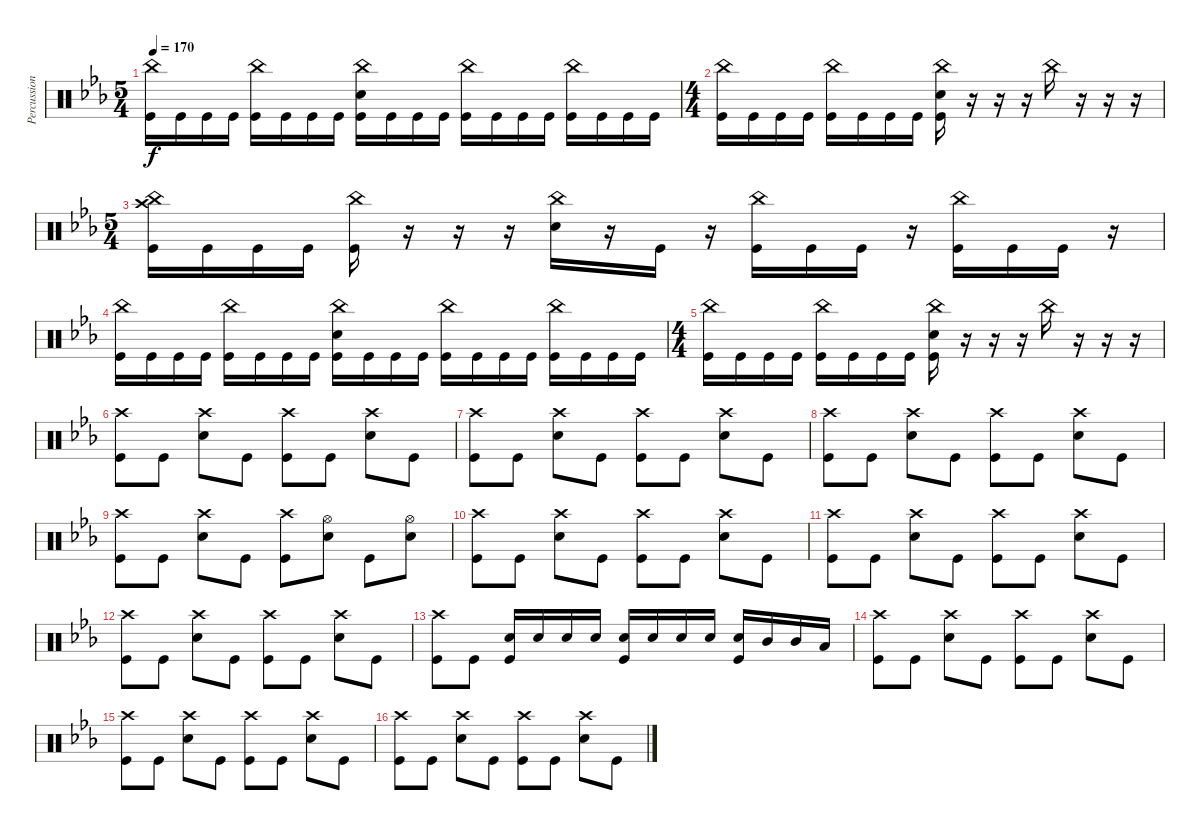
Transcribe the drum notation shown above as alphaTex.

\track ("Percussion" "Percussion") {instrument percussion}
\staff {score}
\articulation defaults
\ts (5 4)
\tempo 170
\clef neutral
\ks cminor
("China (hit)" "Kick (hit)").16{dy f} "Kick (hit)".16 "Kick (hit)".16 "Kick (hit)".16 ("China (hit)" "Kick (hit)").16 "Kick (hit)".16 "Kick (hit)".16 "Kick (hit)".16 ("China (hit)" "Snare (hit) 2" "Kick (hit)").16 "Kick (hit)".16 "Kick (hit)".16 "Kick (hit)".16 ("China (hit)" "Kick (hit)").16 "Kick (hit)".16 "Kick (hit)".16 "Kick (hit)".16 ("China (hit)" "Kick (hit)").16 "Kick (hit)".16 "Kick (hit)".16 "Kick (hit)".16 |
\ts (4 4)
("China (hit)" "Kick (hit)").16 "Kick (hit)".16 "Kick (hit)".16 "Kick (hit)".16 ("China (hit)" "Kick (hit)").16 "Kick (hit)".16 "Kick (hit)".16 "Kick (hit)".16 ("China (hit)" "Snare (hit) 2" "Kick (hit)").16 r.16 r.16 r.16 "China (hit)".16 r.16 r.16 r.16 |
\ts (5 4)
("China (hit)" "Crash high (hit)" "Kick (hit)").16 "Kick (hit)".16 "Kick (hit)".16 "Kick (hit)".16 ("China (hit)" "Kick (hit)").16 r.16 r.16 r.16 ("China (hit)" "Snare (hit) 2").16 r.16 "Kick (hit)".16 r.16 ("China (hit)" "Kick (hit)").16 "Kick (hit)".16 "Kick (hit)".16 r.16 ("China (hit)" "Kick (hit)").16 "Kick (hit)".16 "Kick (hit)".16 r.16 |
("China (hit)" "Kick (hit)").16 "Kick (hit)".16 "Kick (hit)".16 "Kick (hit)".16 ("China (hit)" "Kick (hit)").16 "Kick (hit)".16 "Kick (hit)".16 "Kick (hit)".16 ("China (hit)" "Snare (hit) 2" "Kick (hit)").16 "Kick (hit)".16 "Kick (hit)".16 "Kick (hit)".16 ("China (hit)" "Kick (hit)").16 "Kick (hit)".16 "Kick (hit)".16 "Kick (hit)".16 ("China (hit)" "Kick (hit)").16 "Kick (hit)".16 "Kick (hit)".16 "Kick (hit)".16 |
\ts (4 4)
("China (hit)" "Kick (hit)").16 "Kick (hit)".16 "Kick (hit)".16 "Kick (hit)".16 ("China (hit)" "Kick (hit)").16 "Kick (hit)".16 "Kick (hit)".16 "Kick (hit)".16 ("China (hit)" "Snare (hit) 2" "Kick (hit)").16 r.16 r.16 r.16 "China (hit)".16 r.16 r.16 r.16 |
("Crash high (hit)" "Kick (hit)").8 "Kick (hit)".8 ("Crash high (hit)" "Snare (hit) 2").8 "Kick (hit)".8 ("Crash high (hit)" "Kick (hit)").8 "Kick (hit)".8 ("Crash high (hit)" "Snare (hit) 2").8 "Kick (hit)".8 |
("Crash high (hit)" "Kick (hit)").8 "Kick (hit)".8 ("Crash high (hit)" "Snare (hit) 2").8 "Kick (hit)".8 ("Crash high (hit)" "Kick (hit)").8 "Kick (hit)".8 ("Crash high (hit)" "Snare (hit) 2").8 "Kick (hit)".8 |
("Crash high (hit)" "Kick (hit)").8 "Kick (hit)".8 ("Crash high (hit)" "Snare (hit) 2").8 "Kick (hit)".8 ("Crash high (hit)" "Kick (hit)").8 "Kick (hit)".8 ("Crash high (hit)" "Snare (hit) 2").8 "Kick (hit)".8 |
("Crash high (hit)" "Kick (hit)").8 "Kick (hit)".8 ("Crash high (hit)" "Snare (hit) 2").8 "Kick (hit)".8 ("Crash high (hit)" "Kick (hit)").8 ("Hi-Hat (open)" "Snare (hit) 2").8 "Kick (hit)".8 ("Hi-Hat (open)" "Snare (hit) 2").8 |
("Crash high (hit)" "Kick (hit)").8 "Kick (hit)".8 ("Crash high (hit)" "Snare (hit) 2").8 "Kick (hit)".8 ("Crash high (hit)" "Kick (hit)").8 "Kick (hit)".8 ("Crash high (hit)" "Snare (hit) 2").8 "Kick (hit)".8 |
("Crash high (hit)" "Kick (hit)").8 "Kick (hit)".8 ("Crash high (hit)" "Snare (hit) 2").8 "Kick (hit)".8 ("Crash high (hit)" "Kick (hit)").8 "Kick (hit)".8 ("Crash high (hit)" "Snare (hit) 2").8 "Kick (hit)".8 |
("Crash high (hit)" "Kick (hit)").8 "Kick (hit)".8 ("Crash high (hit)" "Snare (hit) 2").8 "Kick (hit)".8 ("Crash high (hit)" "Kick (hit)").8 "Kick (hit)".8 ("Crash high (hit)" "Snare (hit) 2").8 "Kick (hit)".8 |
("Crash high (hit)" "Kick (hit)").8 "Kick (hit)".8 ("Snare (hit) 2" "Kick (hit)").16{volume 6} "Snare (hit) 2".16 "Snare (hit) 2".16 "Snare (hit) 2".16 ("Snare (hit) 2" "Kick (hit)").16{volume 13} "Snare (hit) 2".16{volume 3} "Snare (hit) 2".16 "Snare (hit) 2".16{volume 13} ("Snare (hit) 2" "Kick (hit)").16{volume 10} "Mid Tom (hit)".16 "Mid Tom (hit)".16 "Low Tom (hit)".16 |
("Crash high (hit)" "Kick (hit)").8{volume 13} "Kick (hit)".8 ("Crash high (hit)" "Snare (hit) 2").8 "Kick (hit)".8 ("Crash high (hit)" "Kick (hit)").8 "Kick (hit)".8 ("Crash high (hit)" "Snare (hit) 2").8 "Kick (hit)".8 |
("Crash high (hit)" "Kick (hit)").8 "Kick (hit)".8 ("Crash high (hit)" "Snare (hit) 2").8 "Kick (hit)".8 ("Crash high (hit)" "Kick (hit)").8 "Kick (hit)".8 ("Crash high (hit)" "Snare (hit) 2").8 "Kick (hit)".8 |
("Crash high (hit)" "Kick (hit)").8 "Kick (hit)".8 ("Crash high (hit)" "Snare (hit) 2").8 "Kick (hit)".8 ("Crash high (hit)" "Kick (hit)").8 "Kick (hit)".8 ("Crash high (hit)" "Snare (hit) 2").8 "Kick (hit)".8
